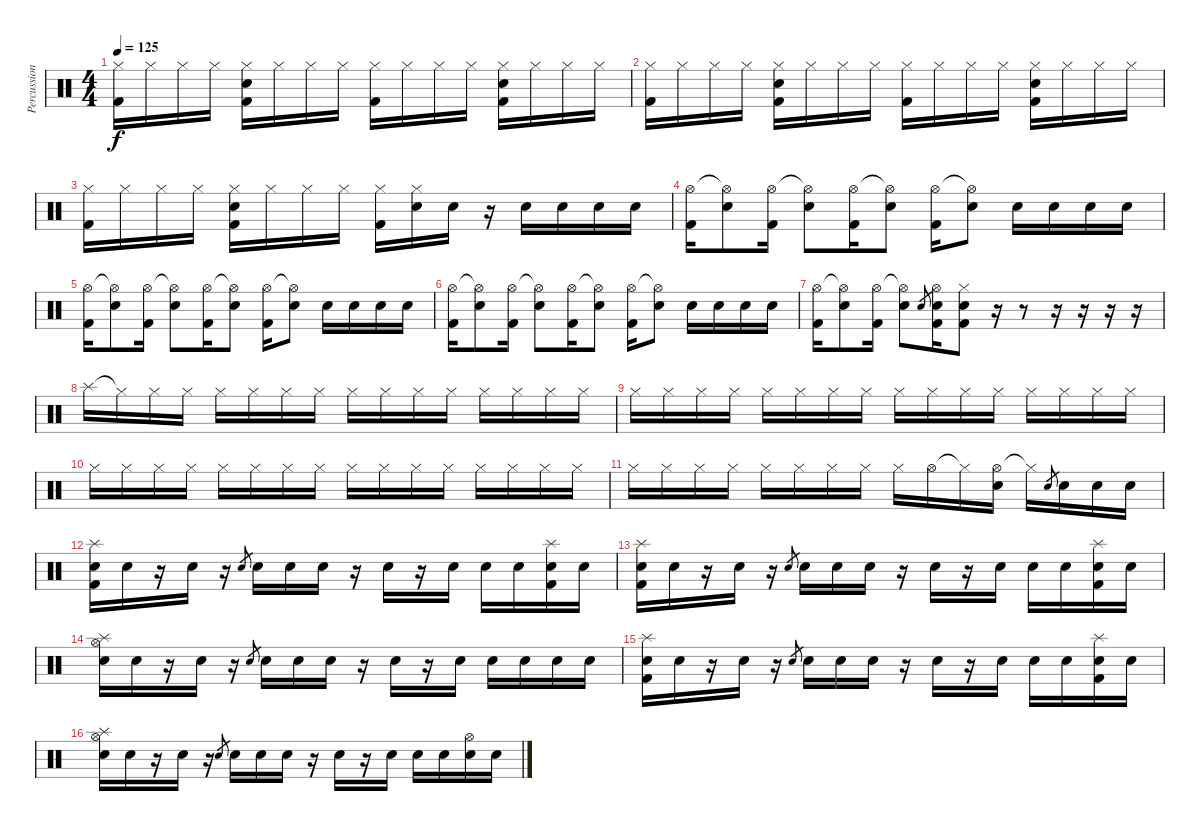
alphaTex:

\track ("Percussion" "Percussion") {instrument percussion}
\staff {score}
\articulation defaults
\ts (4 4)
\tempo 125
\clef neutral
\ks c
("Hi-Hat (closed)" "Kick (hit) 2").16{dy f} "Hi-Hat (closed)".16 "Hi-Hat (closed)".16 "Hi-Hat (closed)".16 ("Hi-Hat (closed)" "Electric Snare (hit)" "Kick (hit) 2").16 "Hi-Hat (closed)".16 "Hi-Hat (closed)".16 "Hi-Hat (closed)".16 ("Hi-Hat (closed)" "Kick (hit) 2").16 "Hi-Hat (closed)".16 "Hi-Hat (closed)".16 "Hi-Hat (closed)".16 ("Hi-Hat (closed)" "Electric Snare (hit)" "Kick (hit) 2").16 "Hi-Hat (closed)".16 "Hi-Hat (closed)".16 "Hi-Hat (closed)".16 |
("Hi-Hat (closed)" "Kick (hit) 2").16 "Hi-Hat (closed)".16 "Hi-Hat (closed)".16 "Hi-Hat (closed)".16 ("Hi-Hat (closed)" "Electric Snare (hit)" "Kick (hit) 2").16 "Hi-Hat (closed)".16 "Hi-Hat (closed)".16 "Hi-Hat (closed)".16 ("Hi-Hat (closed)" "Kick (hit) 2").16 "Hi-Hat (closed)".16 "Hi-Hat (closed)".16 "Hi-Hat (closed)".16 ("Hi-Hat (closed)" "Electric Snare (hit)" "Kick (hit) 2").16 "Hi-Hat (closed)".16 "Hi-Hat (closed)".16 "Hi-Hat (closed)".16 |
("Hi-Hat (closed)" "Kick (hit) 2").16 "Hi-Hat (closed)".16 "Hi-Hat (closed)".16 "Hi-Hat (closed)".16 ("Hi-Hat (closed)" "Electric Snare (hit)" "Kick (hit) 2").16 "Hi-Hat (closed)".16 "Hi-Hat (closed)".16 "Hi-Hat (closed)".16 ("Hi-Hat (closed)" "Kick (hit) 2").16 ("Hi-Hat (closed)" "Electric Snare (hit)").16 "Electric Snare (hit)".16 r.16 "Electric Snare (hit)".16 "Electric Snare (hit)".16 "Electric Snare (hit)".16 "Electric Snare (hit)".16 |
("Hi-Hat (open)" "Kick (hit) 2").16 ("Hi-Hat (open)"{t} "Electric Snare (hit)").8 ("Hi-Hat (open)" "Kick (hit) 2").16 ("Hi-Hat (open)"{t} "Electric Snare (hit)").8 ("Hi-Hat (open)" "Kick (hit) 2").16 ("Hi-Hat (open)"{t} "Electric Snare (hit)").8 ("Hi-Hat (open)" "Kick (hit) 2").16 ("Hi-Hat (open)"{t} "Electric Snare (hit)").8 "Electric Snare (hit)".16 "Electric Snare (hit)".16 "Electric Snare (hit)".16 "Electric Snare (hit)".16 |
("Hi-Hat (open)" "Kick (hit) 2").16 ("Hi-Hat (open)"{t} "Electric Snare (hit)").8 ("Hi-Hat (open)" "Kick (hit) 2").16 ("Hi-Hat (open)"{t} "Electric Snare (hit)").8 ("Hi-Hat (open)" "Kick (hit) 2").16 ("Hi-Hat (open)"{t} "Electric Snare (hit)").8 ("Hi-Hat (open)" "Kick (hit) 2").16 ("Hi-Hat (open)"{t} "Electric Snare (hit)").8 "Electric Snare (hit)".16 "Electric Snare (hit)".16 "Electric Snare (hit)".16 "Electric Snare (hit)".16 |
("Hi-Hat (open)" "Kick (hit) 2").16 ("Hi-Hat (open)"{t} "Electric Snare (hit)").8 ("Hi-Hat (open)" "Kick (hit) 2").16 ("Hi-Hat (open)"{t} "Electric Snare (hit)").8 ("Hi-Hat (open)" "Kick (hit) 2").16 ("Hi-Hat (open)"{t} "Electric Snare (hit)").8 ("Hi-Hat (open)" "Kick (hit) 2").16 ("Hi-Hat (open)"{t} "Electric Snare (hit)").8 "Electric Snare (hit)".16 "Electric Snare (hit)".16 "Electric Snare (hit)".16 "Electric Snare (hit)".16 |
("Hi-Hat (open)" "Kick (hit) 2").16 ("Hi-Hat (open)"{t} "Electric Snare (hit)").8 ("Hi-Hat (open)" "Kick (hit) 2").16 ("Hi-Hat (open)"{t} "Electric Snare (hit)").8 "Electric Snare (hit)".8{gr} ("Hi-Hat (open)" "Electric Snare (hit)" "Kick (hit) 2").16 ("Hi-Hat (closed)" "Electric Snare (hit)" "Kick (hit) 2").8 r.16 r.8 r.16 r.16 r.16 r.16 |
"Splash (hit)".16 "Hi-Hat (closed)"{t}.16 "Hi-Hat (closed)".16 "Hi-Hat (closed)".16 "Hi-Hat (closed)".16 "Hi-Hat (closed)".16 "Hi-Hat (closed)".16 "Hi-Hat (closed)".16 "Hi-Hat (closed)".16 "Hi-Hat (closed)".16 "Hi-Hat (closed)".16 "Hi-Hat (closed)".16 "Hi-Hat (closed)".16 "Hi-Hat (closed)".16 "Hi-Hat (closed)".16 "Hi-Hat (closed)".16 |
"Hi-Hat (closed)".16 "Hi-Hat (closed)".16 "Hi-Hat (closed)".16 "Hi-Hat (closed)".16 "Hi-Hat (closed)".16 "Hi-Hat (closed)".16 "Hi-Hat (closed)".16 "Hi-Hat (closed)".16 "Hi-Hat (closed)".16 "Hi-Hat (closed)".16 "Hi-Hat (closed)".16 "Hi-Hat (closed)".16 "Hi-Hat (closed)".16 "Hi-Hat (closed)".16 "Hi-Hat (closed)".16 "Hi-Hat (closed)".16 |
"Hi-Hat (closed)".16 "Hi-Hat (closed)".16 "Hi-Hat (closed)".16 "Hi-Hat (closed)".16 "Hi-Hat (closed)".16 "Hi-Hat (closed)".16 "Hi-Hat (closed)".16 "Hi-Hat (closed)".16 "Hi-Hat (closed)".16 "Hi-Hat (closed)".16 "Hi-Hat (closed)".16 "Hi-Hat (closed)".16 "Hi-Hat (closed)".16 "Hi-Hat (closed)".16 "Hi-Hat (closed)".16 "Hi-Hat (closed)".16 |
"Hi-Hat (closed)".16 "Hi-Hat (closed)".16 "Hi-Hat (closed)".16 "Hi-Hat (closed)".16 "Hi-Hat (closed)".16 "Hi-Hat (closed)".16 "Hi-Hat (closed)".16 "Hi-Hat (closed)".16 "Hi-Hat (closed)".16 "Hi-Hat (open)".16 "Hi-Hat (closed)"{t}.16 ("Hi-Hat (open)" "Electric Snare (hit)").16 "Hi-Hat (closed)"{t}.16 "Electric Snare (hit)".8{gr} "Electric Snare (hit)".16 "Electric Snare (hit)".16 "Electric Snare (hit)".16 |
("Splash (hit)" "Electric Snare (hit)" "Kick (hit) 2").16 "Electric Snare (hit)".16 r.16 "Electric Snare (hit)".16 r.16 "Electric Snare (hit)".8{gr} "Electric Snare (hit)".16 "Electric Snare (hit)".16 "Electric Snare (hit)".16 r.16 "Electric Snare (hit)".16 r.16 "Electric Snare (hit)".16 "Electric Snare (hit)".16 "Electric Snare (hit)".16 ("Splash (hit)" "Electric Snare (hit)" "Kick (hit) 2").16 "Electric Snare (hit)".16 |
("Splash (hit)" "Electric Snare (hit)" "Kick (hit) 2").16 "Electric Snare (hit)".16 r.16 "Electric Snare (hit)".16 r.16 "Electric Snare (hit)".8{gr} "Electric Snare (hit)".16 "Electric Snare (hit)".16 "Electric Snare (hit)".16 r.16 "Electric Snare (hit)".16 r.16 "Electric Snare (hit)".16 "Electric Snare (hit)".16 "Electric Snare (hit)".16 ("Splash (hit)" "Electric Snare (hit)" "Kick (hit) 2").16 "Electric Snare (hit)".16 |
("Splash (hit)" "Electric Snare (hit)" "Hi-Hat (open)").16 "Electric Snare (hit)".16 r.16 "Electric Snare (hit)".16 r.16 "Electric Snare (hit)".8{gr} "Electric Snare (hit)".16 "Electric Snare (hit)".16 "Electric Snare (hit)".16 r.16 "Electric Snare (hit)".16 r.16 "Electric Snare (hit)".16 "Electric Snare (hit)".16 "Electric Snare (hit)".16 "Electric Snare (hit)".16 "Electric Snare (hit)".16 |
("Splash (hit)" "Electric Snare (hit)" "Kick (hit) 2").16 "Electric Snare (hit)".16 r.16 "Electric Snare (hit)".16 r.16 "Electric Snare (hit)".8{gr} "Electric Snare (hit)".16 "Electric Snare (hit)".16 "Electric Snare (hit)".16 r.16 "Electric Snare (hit)".16 r.16 "Electric Snare (hit)".16 "Electric Snare (hit)".16 "Electric Snare (hit)".16 ("Splash (hit)" "Electric Snare (hit)" "Kick (hit) 2").16 "Electric Snare (hit)".16 |
("Splash (hit)" "Electric Snare (hit)" "Hi-Hat (open)").16 "Electric Snare (hit)".16 r.16 "Electric Snare (hit)".16 r.16 "Electric Snare (hit)".8{gr} "Electric Snare (hit)".16 "Electric Snare (hit)".16 "Electric Snare (hit)".16 r.16 "Electric Snare (hit)".16 r.16 "Electric Snare (hit)".16 "Electric Snare (hit)".16 "Electric Snare (hit)".16 ("Hi-Hat (open)" "Electric Snare (hit)").16 "Electric Snare (hit)".16
